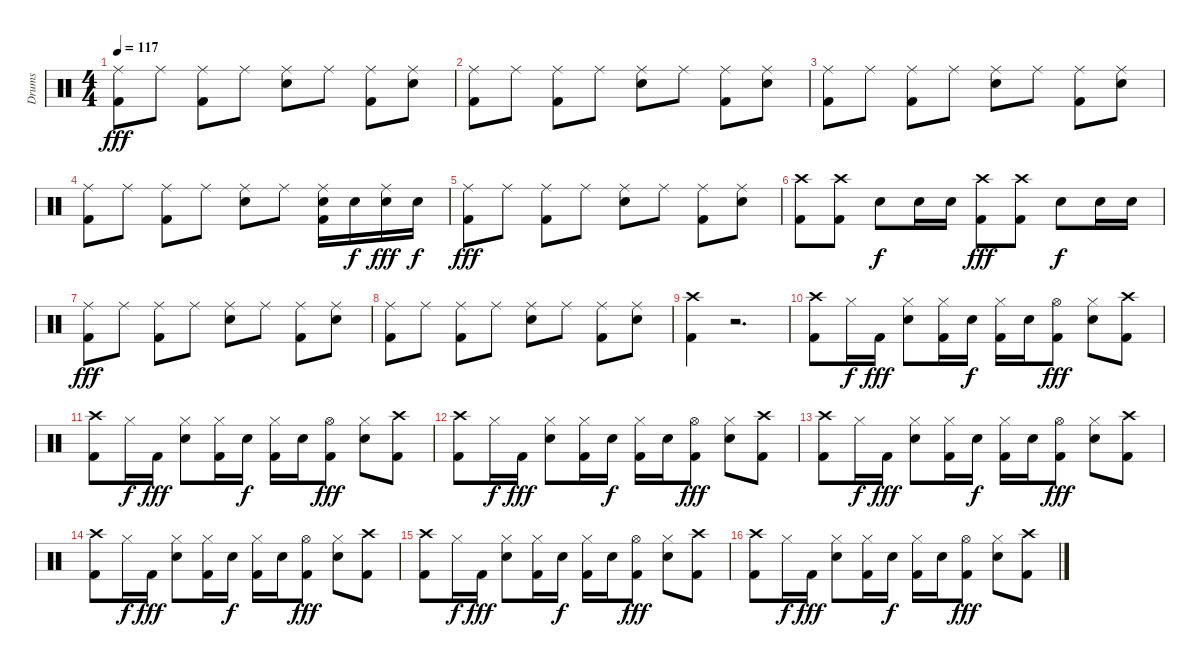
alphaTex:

\track ("Drums" "Drums") {instrument percussion}
\staff {score}
\articulation defaults
\ts (4 4)
\tempo 117
\clef neutral
\ks c
("Ride (middle)" "Kick (hit) 2").8{dy fff} "Ride (middle)".8 ("Ride (middle)" "Kick (hit) 2").8 "Ride (middle)".8 ("Ride (middle)" "Snare (hit) 2").8 "Ride (middle)".8 ("Ride (middle)" "Kick (hit) 2").8 ("Ride (middle)" "Snare (hit) 2").8 |
("Ride (middle)" "Kick (hit) 2").8 "Ride (middle)".8 ("Ride (middle)" "Kick (hit) 2").8 "Ride (middle)".8 ("Ride (middle)" "Snare (hit) 2").8 "Ride (middle)".8 ("Ride (middle)" "Kick (hit) 2").8 ("Ride (middle)" "Snare (hit) 2").8 |
("Ride (middle)" "Kick (hit) 2").8 "Ride (middle)".8 ("Ride (middle)" "Kick (hit) 2").8 "Ride (middle)".8 ("Ride (middle)" "Snare (hit) 2").8 "Ride (middle)".8 ("Ride (middle)" "Kick (hit) 2").8 ("Ride (middle)" "Snare (hit) 2").8 |
("Ride (middle)" "Kick (hit) 2").8 "Ride (middle)".8 ("Ride (middle)" "Kick (hit) 2").8 "Ride (middle)".8 ("Ride (middle)" "Snare (hit) 2").8 "Ride (middle)".8 ("Ride (middle)" "Snare (hit) 2" "Kick (hit) 2").16 "Snare (hit) 2".16{dy f} ("Ride (middle)" "Snare (hit) 2").16{dy fff} "Snare (hit) 2".16{dy f} |
("Ride (middle)" "Kick (hit) 2").8{dy fff} "Ride (middle)".8 ("Ride (middle)" "Kick (hit) 2").8 "Ride (middle)".8 ("Ride (middle)" "Snare (hit) 2").8 "Ride (middle)".8 ("Ride (middle)" "Kick (hit) 2").8 ("Ride (middle)" "Snare (hit) 2").8 |
("Crash high (hit)" "Kick (hit) 2").8 ("Crash high (hit)" "Kick (hit) 2").8 "Snare (hit) 2".8{dy f} "Snare (hit) 2".16 "Snare (hit) 2".16 ("Crash high (hit)" "Kick (hit) 2").8{dy fff} ("Crash high (hit)" "Kick (hit) 2").8 "Snare (hit) 2".8{dy f} "Snare (hit) 2".16 "Snare (hit) 2".16 |
("Ride (middle)" "Kick (hit) 2").8{dy fff} "Ride (middle)".8 ("Ride (middle)" "Kick (hit) 2").8 "Ride (middle)".8 ("Ride (middle)" "Snare (hit) 2").8 "Ride (middle)".8 ("Ride (middle)" "Kick (hit) 2").8 ("Ride (middle)" "Snare (hit) 2").8 |
("Ride (middle)" "Kick (hit) 2").8 "Ride (middle)".8 ("Ride (middle)" "Kick (hit) 2").8 "Ride (middle)".8 ("Ride (middle)" "Snare (hit) 2").8 "Ride (middle)".8 ("Ride (middle)" "Kick (hit) 2").8 ("Ride (middle)" "Snare (hit) 2").8 |
("Crash high (hit)" "Kick (hit) 2").4 r.2{d} |
("Crash high (hit)" "Kick (hit) 2").8 "Hi-Hat (closed)".16{dy f} "Kick (hit) 2".16{dy fff} ("Hi-Hat (closed)" "Snare (hit) 2").8 ("Hi-Hat (closed)" "Kick (hit) 2").16 "Snare (hit) 2".16{dy f} ("Hi-Hat (closed)" "Kick (hit) 2").16 "Snare (hit) 2".16 ("Hi-Hat (open)" "Kick (hit) 2").8{dy fff} ("Hi-Hat (closed)" "Snare (hit) 2").8 ("Crash high (hit)" "Kick (hit) 2").8 |
("Crash high (hit)" "Kick (hit) 2").8 "Hi-Hat (closed)".16{dy f} "Kick (hit) 2".16{dy fff} ("Hi-Hat (closed)" "Snare (hit) 2").8 ("Hi-Hat (closed)" "Kick (hit) 2").16 "Snare (hit) 2".16{dy f} ("Hi-Hat (closed)" "Kick (hit) 2").16 "Snare (hit) 2".16 ("Hi-Hat (open)" "Kick (hit) 2").8{dy fff} ("Hi-Hat (closed)" "Snare (hit) 2").8 ("Crash high (hit)" "Kick (hit) 2").8 |
("Crash high (hit)" "Kick (hit) 2").8 "Hi-Hat (closed)".16{dy f} "Kick (hit) 2".16{dy fff} ("Hi-Hat (closed)" "Snare (hit) 2").8 ("Hi-Hat (closed)" "Kick (hit) 2").16 "Snare (hit) 2".16{dy f} ("Hi-Hat (closed)" "Kick (hit) 2").16 "Snare (hit) 2".16 ("Hi-Hat (open)" "Kick (hit) 2").8{dy fff} ("Hi-Hat (closed)" "Snare (hit) 2").8 ("Crash high (hit)" "Kick (hit) 2").8 |
("Crash high (hit)" "Kick (hit) 2").8 "Hi-Hat (closed)".16{dy f} "Kick (hit) 2".16{dy fff} ("Hi-Hat (closed)" "Snare (hit) 2").8 ("Hi-Hat (closed)" "Kick (hit) 2").16 "Snare (hit) 2".16{dy f} ("Hi-Hat (closed)" "Kick (hit) 2").16 "Snare (hit) 2".16 ("Hi-Hat (open)" "Kick (hit) 2").8{dy fff} ("Hi-Hat (closed)" "Snare (hit) 2").8 ("Crash high (hit)" "Kick (hit) 2").8 |
("Crash high (hit)" "Kick (hit) 2").8 "Hi-Hat (closed)".16{dy f} "Kick (hit) 2".16{dy fff} ("Hi-Hat (closed)" "Snare (hit) 2").8 ("Hi-Hat (closed)" "Kick (hit) 2").16 "Snare (hit) 2".16{dy f} ("Hi-Hat (closed)" "Kick (hit) 2").16 "Snare (hit) 2".16 ("Hi-Hat (open)" "Kick (hit) 2").8{dy fff} ("Hi-Hat (closed)" "Snare (hit) 2").8 ("Crash high (hit)" "Kick (hit) 2").8 |
("Crash high (hit)" "Kick (hit) 2").8 "Hi-Hat (closed)".16{dy f} "Kick (hit) 2".16{dy fff} ("Hi-Hat (closed)" "Snare (hit) 2").8 ("Hi-Hat (closed)" "Kick (hit) 2").16 "Snare (hit) 2".16{dy f} ("Hi-Hat (closed)" "Kick (hit) 2").16 "Snare (hit) 2".16 ("Hi-Hat (open)" "Kick (hit) 2").8{dy fff} ("Hi-Hat (closed)" "Snare (hit) 2").8 ("Crash high (hit)" "Kick (hit) 2").8 |
("Crash high (hit)" "Kick (hit) 2").8 "Hi-Hat (closed)".16{dy f} "Kick (hit) 2".16{dy fff} ("Hi-Hat (closed)" "Snare (hit) 2").8 ("Hi-Hat (closed)" "Kick (hit) 2").16 "Snare (hit) 2".16{dy f} ("Hi-Hat (closed)" "Kick (hit) 2").16 "Snare (hit) 2".16 ("Hi-Hat (open)" "Kick (hit) 2").8{dy fff} ("Hi-Hat (closed)" "Snare (hit) 2").8 ("Crash high (hit)" "Kick (hit) 2").8
